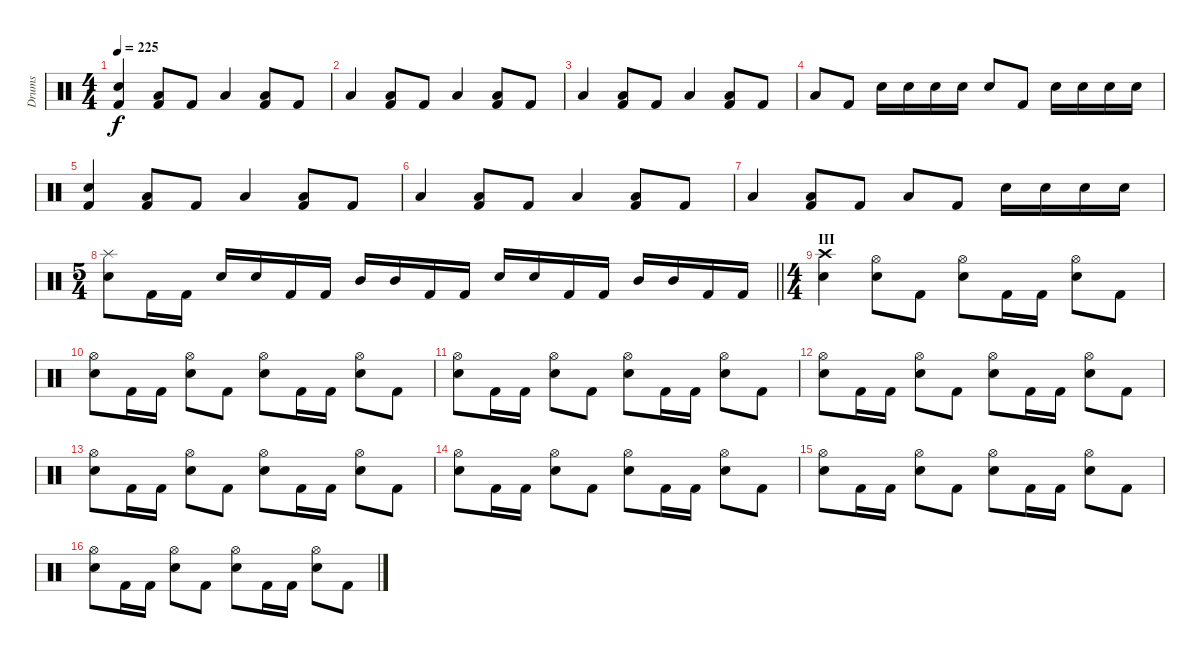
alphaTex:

\track ("Drums" "Drums") {instrument percussion}
\staff {score}
\articulation defaults
\ts (4 4)
\tempo 225
\clef neutral
\ks c
("Electric Snare (hit)" "Kick (hit) 2").4{dy f} ("Low Tom (hit)" "Kick (hit) 2").8 "Kick (hit) 2".8 "Low Tom (hit)".4 ("Low Tom (hit)" "Kick (hit) 2").8 "Kick (hit) 2".8 |
"Low Tom (hit)".4 ("Low Tom (hit)" "Kick (hit) 2").8 "Kick (hit) 2".8 "Low Tom (hit)".4 ("Low Tom (hit)" "Kick (hit) 2").8 "Kick (hit) 2".8 |
"Low Tom (hit)".4 ("Low Tom (hit)" "Kick (hit) 2").8 "Kick (hit) 2".8 "Low Tom (hit)".4 ("Low Tom (hit)" "Kick (hit) 2").8 "Kick (hit) 2".8 |
"Low Tom (hit)".8 "Kick (hit) 2".8 "Electric Snare (hit)".16 "Electric Snare (hit)".16 "Electric Snare (hit)".16 "Electric Snare (hit)".16 "Electric Snare (hit)".8 "Kick (hit) 2".8 "Electric Snare (hit)".16 "Electric Snare (hit)".16 "Electric Snare (hit)".16 "Electric Snare (hit)".16 |
("Electric Snare (hit)" "Kick (hit) 2").4 ("Low Tom (hit)" "Kick (hit) 2").8 "Kick (hit) 2".8 "Low Tom (hit)".4 ("Low Tom (hit)" "Kick (hit) 2").8 "Kick (hit) 2".8 |
"Low Tom (hit)".4 ("Low Tom (hit)" "Kick (hit) 2").8 "Kick (hit) 2".8 "Low Tom (hit)".4 ("Low Tom (hit)" "Kick (hit) 2").8 "Kick (hit) 2".8 |
"Low Tom (hit)".4 ("Low Tom (hit)" "Kick (hit) 2").8 "Kick (hit) 2".8 "Low Tom (hit)".8 "Kick (hit) 2".8 "Electric Snare (hit)".16 "Electric Snare (hit)".16 "Electric Snare (hit)".16 "Electric Snare (hit)".16 |
\ts (5 4)
\barLineRight lightlight
("Splash (hit)" "Electric Snare (hit)").8 "Kick (hit) 2".16 "Kick (hit) 2".16 "Electric Snare (hit)".16 "Electric Snare (hit)".16 "Kick (hit) 2".16 "Kick (hit) 2".16 "Mid Tom (hit)".16 "Mid Tom (hit)".16 "Kick (hit) 2".16 "Kick (hit) 2".16 "Electric Snare (hit)".16 "Electric Snare (hit)".16 "Kick (hit) 2".16 "Kick (hit) 2".16 "Mid Tom (hit)".16 "Mid Tom (hit)".16 "Kick (hit) 2".16 "Kick (hit) 2".16 |
\ts (4 4)
\section ("" "III")
("Crash high (hit)" "Electric Snare (hit)").4 ("Hi-Hat (open)" "Electric Snare (hit)").8 "Kick (hit) 2".8 ("Hi-Hat (open)" "Electric Snare (hit)").8 "Kick (hit) 2".16 "Kick (hit) 2".16 ("Hi-Hat (open)" "Electric Snare (hit)").8 "Kick (hit) 2".8 |
("Hi-Hat (open)" "Electric Snare (hit)").8 "Kick (hit) 2".16 "Kick (hit) 2".16 ("Hi-Hat (open)" "Electric Snare (hit)").8 "Kick (hit) 2".8 ("Hi-Hat (open)" "Electric Snare (hit)").8 "Kick (hit) 2".16 "Kick (hit) 2".16 ("Hi-Hat (open)" "Electric Snare (hit)").8 "Kick (hit) 2".8 |
("Hi-Hat (open)" "Electric Snare (hit)").8 "Kick (hit) 2".16 "Kick (hit) 2".16 ("Hi-Hat (open)" "Electric Snare (hit)").8 "Kick (hit) 2".8 ("Hi-Hat (open)" "Electric Snare (hit)").8 "Kick (hit) 2".16 "Kick (hit) 2".16 ("Hi-Hat (open)" "Electric Snare (hit)").8 "Kick (hit) 2".8 |
("Hi-Hat (open)" "Electric Snare (hit)").8 "Kick (hit) 2".16 "Kick (hit) 2".16 ("Hi-Hat (open)" "Electric Snare (hit)").8 "Kick (hit) 2".8 ("Hi-Hat (open)" "Electric Snare (hit)").8 "Kick (hit) 2".16 "Kick (hit) 2".16 ("Hi-Hat (open)" "Electric Snare (hit)").8 "Kick (hit) 2".8 |
("Hi-Hat (open)" "Electric Snare (hit)").8 "Kick (hit) 2".16 "Kick (hit) 2".16 ("Hi-Hat (open)" "Electric Snare (hit)").8 "Kick (hit) 2".8 ("Hi-Hat (open)" "Electric Snare (hit)").8 "Kick (hit) 2".16 "Kick (hit) 2".16 ("Hi-Hat (open)" "Electric Snare (hit)").8 "Kick (hit) 2".8 |
("Hi-Hat (open)" "Electric Snare (hit)").8 "Kick (hit) 2".16 "Kick (hit) 2".16 ("Hi-Hat (open)" "Electric Snare (hit)").8 "Kick (hit) 2".8 ("Hi-Hat (open)" "Electric Snare (hit)").8 "Kick (hit) 2".16 "Kick (hit) 2".16 ("Hi-Hat (open)" "Electric Snare (hit)").8 "Kick (hit) 2".8 |
("Hi-Hat (open)" "Electric Snare (hit)").8 "Kick (hit) 2".16 "Kick (hit) 2".16 ("Hi-Hat (open)" "Electric Snare (hit)").8 "Kick (hit) 2".8 ("Hi-Hat (open)" "Electric Snare (hit)").8 "Kick (hit) 2".16 "Kick (hit) 2".16 ("Hi-Hat (open)" "Electric Snare (hit)").8 "Kick (hit) 2".8 |
("Hi-Hat (open)" "Electric Snare (hit)").8 "Kick (hit) 2".16 "Kick (hit) 2".16 ("Hi-Hat (open)" "Electric Snare (hit)").8 "Kick (hit) 2".8 ("Hi-Hat (open)" "Electric Snare (hit)").8 "Kick (hit) 2".16 "Kick (hit) 2".16 ("Hi-Hat (open)" "Electric Snare (hit)").8 "Kick (hit) 2".8
